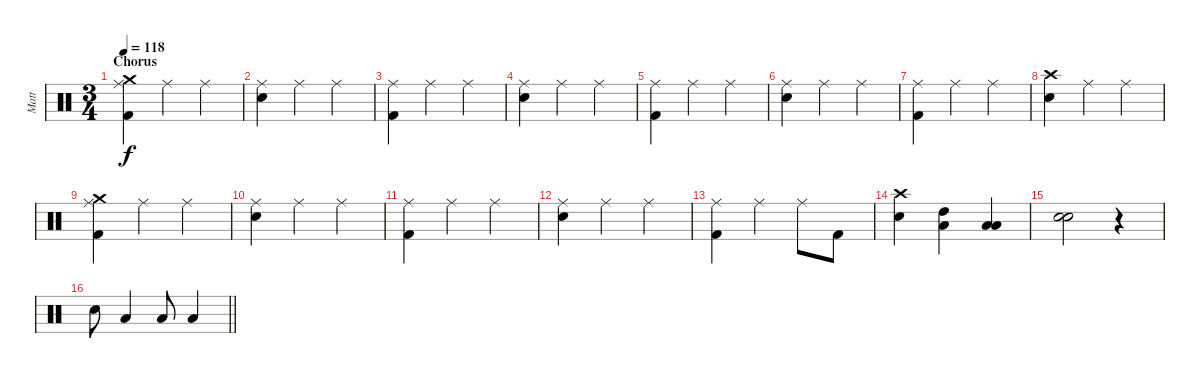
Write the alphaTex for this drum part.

\track ("Matt" "Matt") {instrument percussion}
\staff {score}
\articulation defaults
\ts (3 4)
\section ("" "Chorus")
\tempo 118
\clef neutral
\ks c
("Crash medium (hit)" "Ride (middle)" "Kick (hit) 2").4{dy f} "Ride (middle)".4 "Ride (middle)".4 |
("Ride (middle)" "Snare (hit) 2").4 "Ride (middle)".4 "Ride (middle)".4 |
("Ride (middle)" "Kick (hit) 2").4 "Ride (middle)".4 "Ride (middle)".4 |
("Ride (middle)" "Snare (hit) 2").4 "Ride (middle)".4 "Ride (middle)".4 |
("Ride (middle)" "Kick (hit) 2").4 "Ride (middle)".4 "Ride (middle)".4 |
("Ride (middle)" "Snare (hit) 2").4 "Ride (middle)".4 "Ride (middle)".4 |
("Ride (middle)" "Kick (hit) 2").4 "Ride (middle)".4 "Ride (middle)".4 |
("Crash high (hit)" "Snare (hit) 2").4 "Ride (middle)".4 "Ride (middle)".4 |
("Crash medium (hit)" "Ride (middle)" "Kick (hit) 2").4 "Ride (middle)".4 "Ride (middle)".4 |
("Ride (middle)" "Snare (hit) 2").4 "Ride (middle)".4 "Ride (middle)".4 |
("Ride (middle)" "Kick (hit) 2").4 "Ride (middle)".4 "Ride (middle)".4 |
("Ride (middle)" "Snare (hit) 2").4 "Ride (middle)".4 "Ride (middle)".4 |
("Ride (middle)" "Kick (hit) 2").4 "Ride (middle)".4 "Ride (middle)".8 "Kick (hit) 2".8 |
("Crash high (hit)" "Snare (hit) 2").4 ("Low Tom (hit)" "High Tom (hit)").4 ("Low Tom (hit)" "Low Floor Tom (hit)").4 |
("Snare (hit) 2" "Snare (hit) 2").2{bd 120} r.4 |
\barLineRight lightlight "Snare (hit) 2".8 "Low Tom (hit)".4 "Low Floor Tom (hit)".8 "Low Floor Tom (hit)".4
